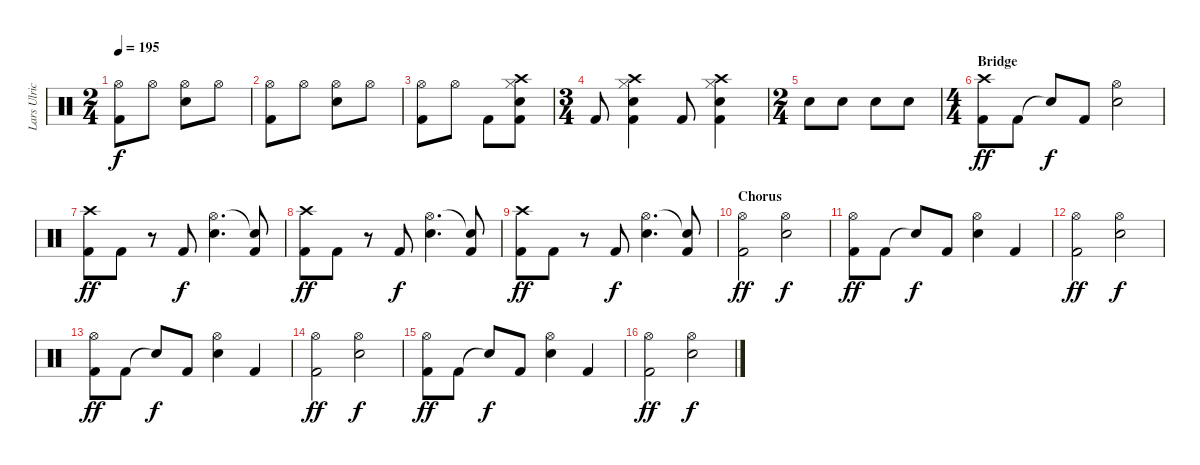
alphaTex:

\track ("Lars Ulrich" "Lars Ulric") {instrument percussion}
\staff {score}
\articulation defaults
\ts (2 4)
\tempo 195
\clef neutral
\ks c
("Kick (hit) 2" "Hi-Hat (open)").8{dy f} "Hi-Hat (open)".8 ("Snare (hit) 2" "Hi-Hat (open)").8 "Hi-Hat (open)".8 |
("Kick (hit) 2" "Hi-Hat (open)").8 "Hi-Hat (open)".8 ("Snare (hit) 2" "Hi-Hat (open)").8 "Hi-Hat (open)".8 |
("Kick (hit) 2" "Hi-Hat (open)").8 "Hi-Hat (open)".8 "Kick (hit) 2".8 ("Kick (hit) 2" "Snare (hit) 2" "Hi-Hat (closed)" "Crash high (hit)").8 |
\ts (3 4)
"Kick (hit) 2".8 ("Kick (hit) 2" "Snare (hit) 2" "Hi-Hat (closed)" "Crash high (hit)").4 "Kick (hit) 2".8 ("Kick (hit) 2" "Snare (hit) 2" "Hi-Hat (closed)" "Crash high (hit)").4 |
\ts (2 4)
"Snare (hit) 2".8 "Snare (hit) 2".8 "Snare (hit) 2".8 "Snare (hit) 2".8 |
\ts (4 4)
\section ("" "Bridge")
("Kick (hit) 2" "Crash high (hit)").8{dy ff} "Kick (hit) 2".8 "Snare (hit)"{t}.8{dy f} "Kick (hit) 2".8 ("Snare (hit) 2" "Hi-Hat (open)").2 |
("Kick (hit) 2" "Crash high (hit)").8{dy ff} "Kick (hit) 2".8 r.8 "Kick (hit) 2".8{dy f} ("Snare (hit) 2" "Hi-Hat (open)").4{d} ("Kick (hit) 2" "Snare (hit)"{t}).8 |
("Kick (hit) 2" "Crash high (hit)").8{dy ff} "Kick (hit) 2".8 r.8 "Kick (hit) 2".8{dy f} ("Snare (hit) 2" "Hi-Hat (open)").4{d} ("Kick (hit) 2" "Snare (hit)"{t}).8 |
("Kick (hit) 2" "Crash high (hit)").8{dy ff} "Kick (hit) 2".8 r.8 "Kick (hit) 2".8{dy f} ("Snare (hit) 2" "Hi-Hat (open)").4{d} ("Kick (hit) 2" "Snare (hit)"{t}).8 |
\section ("" "Chorus")
("Kick (hit) 2" "Hi-Hat (open)").2{dy ff} ("Snare (hit) 2" "Hi-Hat (open)").2{dy f} |
("Kick (hit) 2" "Hi-Hat (open)").8{dy ff} "Kick (hit) 2".8 "Snare (hit)"{t}.8{dy f} "Kick (hit) 2".8 ("Snare (hit) 2" "Hi-Hat (open)").4 "Kick (hit) 2".4 |
("Kick (hit) 2" "Hi-Hat (open)").2{dy ff} ("Snare (hit) 2" "Hi-Hat (open)").2{dy f} |
("Kick (hit) 2" "Hi-Hat (open)").8{dy ff} "Kick (hit) 2".8 "Snare (hit)"{t}.8{dy f} "Kick (hit) 2".8 ("Snare (hit) 2" "Hi-Hat (open)").4 "Kick (hit) 2".4 |
("Kick (hit) 2" "Hi-Hat (open)").2{dy ff} ("Snare (hit) 2" "Hi-Hat (open)").2{dy f} |
("Kick (hit) 2" "Hi-Hat (open)").8{dy ff} "Kick (hit) 2".8 "Snare (hit)"{t}.8{dy f} "Kick (hit) 2".8 ("Snare (hit) 2" "Hi-Hat (open)").4 "Kick (hit) 2".4 |
("Kick (hit) 2" "Hi-Hat (open)").2{dy ff} ("Snare (hit) 2" "Hi-Hat (open)").2{dy f}
